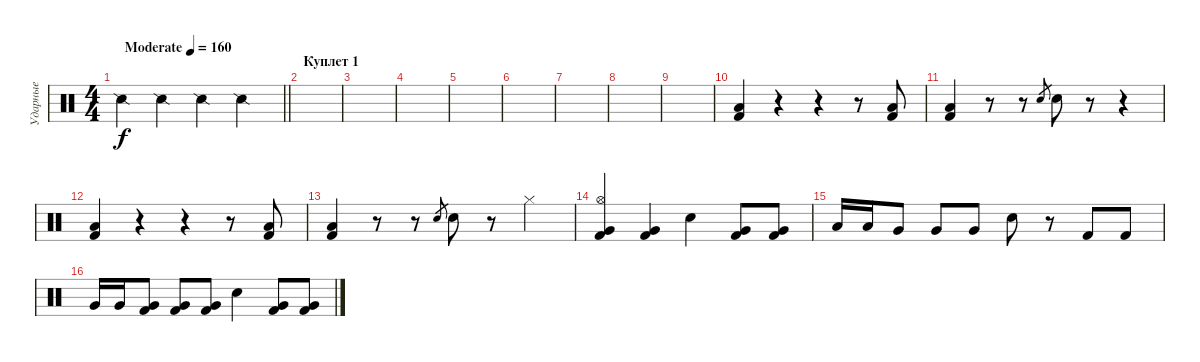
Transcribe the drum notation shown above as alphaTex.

\track ("Ударные" "Ударные") {instrument percussion}
\staff {score}
\articulation defaults
\ts (4 4)
\tempo (160 "Moderate")
\clef neutral
\barLineRight lightlight
\ks c "Snare (side stick) 2".4{dy f} "Snare (side stick) 2".4 "Snare (side stick) 2".4 "Snare (side stick) 2".4
|
\section ("" "Куплет 1")
|
|
|
|
|
|
|
|
("Low Floor Tom (hit)" "Kick (hit) 2").4 r.4 r.4 r.8 ("Low Floor Tom (hit)" "Kick (hit) 2").8 |
("Low Floor Tom (hit)" "Kick (hit) 2").4 r.8 r.8 "Snare (hit) 2".8{gr} "Snare (hit) 2".8 r.8 r.4 |
("Low Floor Tom (hit)" "Kick (hit) 2").4 r.4 r.4 r.8 ("Low Floor Tom (hit)" "Kick (hit) 2").8 |
("Low Floor Tom (hit)" "Kick (hit) 2").4 r.8 r.8 "Snare (hit) 2".8{gr} "Snare (hit) 2".8 r.8 "Hi-Hat (closed)".4 |
("Hi-Hat (open)" "Very Low Tom (hit)" "Kick (hit) 2").4 ("Very Low Tom (hit)" "Kick (hit) 2").4 "Snare (hit) 2".4 ("Very Low Tom (hit)" "Kick (hit) 2").8 ("Very Low Tom (hit)" "Kick (hit) 2").8 |
"Low Tom (hit)".16 "Low Tom (hit)".16 "Very Low Tom (hit)".8 "Very Low Tom (hit)".8 "Very Low Tom (hit)".8 "Snare (hit) 2".8 r.8 "Kick (hit) 2".8 "Kick (hit) 2".8 |
"Very Low Tom (hit)".16 "Very Low Tom (hit)".16 ("Very Low Tom (hit)" "Kick (hit) 2").8 ("Very Low Tom (hit)" "Kick (hit) 2").8 ("Very Low Tom (hit)" "Kick (hit) 2").8 "Snare (hit) 2".4 ("Very Low Tom (hit)" "Kick (hit) 2").8 ("Very Low Tom (hit)" "Kick (hit) 2").8
